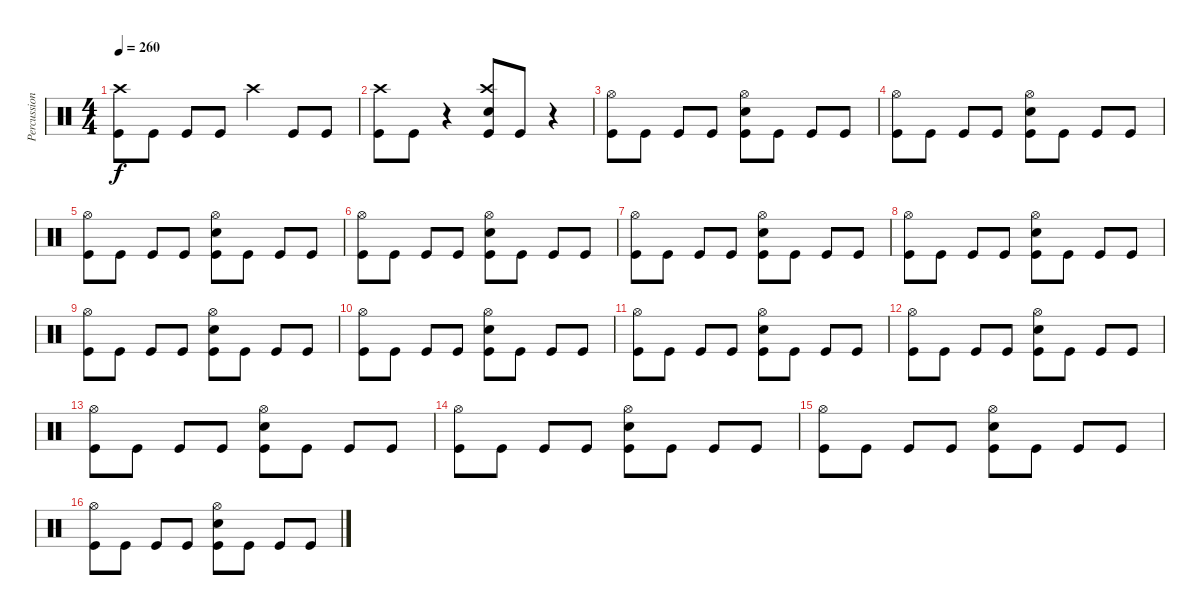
\track ("Percussion" "Percussion") {instrument percussion}
\staff {score}
\articulation defaults
\ts (4 4)
\tempo 260
\clef neutral
\ks c
("Kick (hit)" "Crash high (hit)").8{dy f} "Kick (hit)".8 "Kick (hit)".8 "Kick (hit)".8 "Crash high (hit)".4 "Kick (hit)".8 "Kick (hit)".8 |
("Kick (hit)" "Crash high (hit)").8 "Kick (hit)".8 r.4 ("Kick (hit)" "Snare (hit) 2" "Crash high (hit)").8 "Kick (hit)".8 r.4 |
("Kick (hit)" "Hi-Hat (open)").8 "Kick (hit)".8 "Kick (hit)".8 "Kick (hit)".8 ("Kick (hit)" "Snare (hit) 2" "Hi-Hat (open)").8 "Kick (hit)".8 "Kick (hit)".8 "Kick (hit)".8 |
("Kick (hit)" "Hi-Hat (open)").8 "Kick (hit)".8 "Kick (hit)".8 "Kick (hit)".8 ("Kick (hit)" "Snare (hit) 2" "Hi-Hat (open)").8 "Kick (hit)".8 "Kick (hit)".8 "Kick (hit)".8 |
("Kick (hit)" "Hi-Hat (open)").8 "Kick (hit)".8 "Kick (hit)".8 "Kick (hit)".8 ("Kick (hit)" "Snare (hit) 2" "Hi-Hat (open)").8 "Kick (hit)".8 "Kick (hit)".8 "Kick (hit)".8 |
("Kick (hit)" "Hi-Hat (open)").8 "Kick (hit)".8 "Kick (hit)".8 "Kick (hit)".8 ("Kick (hit)" "Snare (hit) 2" "Hi-Hat (open)").8 "Kick (hit)".8 "Kick (hit)".8 "Kick (hit)".8 |
("Kick (hit)" "Hi-Hat (open)").8 "Kick (hit)".8 "Kick (hit)".8 "Kick (hit)".8 ("Kick (hit)" "Snare (hit) 2" "Hi-Hat (open)").8 "Kick (hit)".8 "Kick (hit)".8 "Kick (hit)".8 |
("Kick (hit)" "Hi-Hat (open)").8 "Kick (hit)".8 "Kick (hit)".8 "Kick (hit)".8 ("Kick (hit)" "Snare (hit) 2" "Hi-Hat (open)").8 "Kick (hit)".8 "Kick (hit)".8 "Kick (hit)".8 |
("Kick (hit)" "Hi-Hat (open)").8 "Kick (hit)".8 "Kick (hit)".8 "Kick (hit)".8 ("Kick (hit)" "Snare (hit) 2" "Hi-Hat (open)").8 "Kick (hit)".8 "Kick (hit)".8 "Kick (hit)".8 |
("Kick (hit)" "Hi-Hat (open)").8 "Kick (hit)".8 "Kick (hit)".8 "Kick (hit)".8 ("Kick (hit)" "Snare (hit) 2" "Hi-Hat (open)").8 "Kick (hit)".8 "Kick (hit)".8 "Kick (hit)".8 |
("Kick (hit)" "Hi-Hat (open)").8 "Kick (hit)".8 "Kick (hit)".8 "Kick (hit)".8 ("Kick (hit)" "Snare (hit) 2" "Hi-Hat (open)").8 "Kick (hit)".8 "Kick (hit)".8 "Kick (hit)".8 |
("Kick (hit)" "Hi-Hat (open)").8 "Kick (hit)".8 "Kick (hit)".8 "Kick (hit)".8 ("Kick (hit)" "Snare (hit) 2" "Hi-Hat (open)").8 "Kick (hit)".8 "Kick (hit)".8 "Kick (hit)".8 |
("Kick (hit)" "Hi-Hat (open)").8 "Kick (hit)".8 "Kick (hit)".8 "Kick (hit)".8 ("Kick (hit)" "Snare (hit) 2" "Hi-Hat (open)").8 "Kick (hit)".8 "Kick (hit)".8 "Kick (hit)".8 |
("Kick (hit)" "Hi-Hat (open)").8 "Kick (hit)".8 "Kick (hit)".8 "Kick (hit)".8 ("Kick (hit)" "Snare (hit) 2" "Hi-Hat (open)").8 "Kick (hit)".8 "Kick (hit)".8 "Kick (hit)".8 |
("Kick (hit)" "Hi-Hat (open)").8 "Kick (hit)".8 "Kick (hit)".8 "Kick (hit)".8 ("Kick (hit)" "Snare (hit) 2" "Hi-Hat (open)").8 "Kick (hit)".8 "Kick (hit)".8 "Kick (hit)".8 |
("Kick (hit)" "Hi-Hat (open)").8 "Kick (hit)".8 "Kick (hit)".8 "Kick (hit)".8 ("Kick (hit)" "Snare (hit) 2" "Hi-Hat (open)").8 "Kick (hit)".8 "Kick (hit)".8 "Kick (hit)".8
